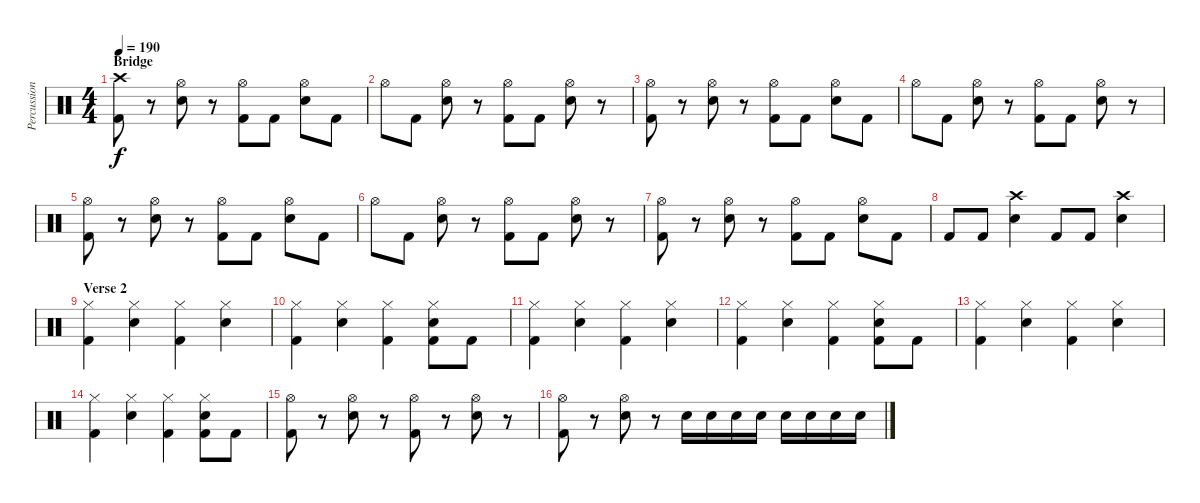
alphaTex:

\track ("Percussion" "Percussion") {instrument percussion}
\staff {score}
\articulation defaults
\ts (4 4)
\section ("" "Bridge")
\tempo 190
\clef neutral
\ks c
("Crash high (hit)" "Kick (hit) 2").8{dy f} r.8 ("Hi-Hat (open)" "Electric Snare (hit)").8 r.8 ("Hi-Hat (open)" "Kick (hit) 2").8 "Kick (hit) 2".8 ("Hi-Hat (open)" "Electric Snare (hit)").8 "Kick (hit) 2".8 |
"Hi-Hat (open)".8 "Kick (hit) 2".8 ("Hi-Hat (open)" "Electric Snare (hit)").8 r.8 ("Hi-Hat (open)" "Kick (hit) 2").8 "Kick (hit) 2".8 ("Hi-Hat (open)" "Electric Snare (hit)").8 r.8 |
("Hi-Hat (open)" "Kick (hit) 2").8 r.8 ("Hi-Hat (open)" "Electric Snare (hit)").8 r.8 ("Hi-Hat (open)" "Kick (hit) 2").8 "Kick (hit) 2".8 ("Hi-Hat (open)" "Electric Snare (hit)").8 "Kick (hit) 2".8 |
"Hi-Hat (open)".8 "Kick (hit) 2".8 ("Hi-Hat (open)" "Electric Snare (hit)").8 r.8 ("Hi-Hat (open)" "Kick (hit) 2").8 "Kick (hit) 2".8 ("Hi-Hat (open)" "Electric Snare (hit)").8 r.8 |
("Hi-Hat (open)" "Kick (hit) 2").8 r.8 ("Hi-Hat (open)" "Electric Snare (hit)").8 r.8 ("Hi-Hat (open)" "Kick (hit) 2").8 "Kick (hit) 2".8 ("Hi-Hat (open)" "Electric Snare (hit)").8 "Kick (hit) 2".8 |
"Hi-Hat (open)".8 "Kick (hit) 2".8 ("Hi-Hat (open)" "Electric Snare (hit)").8 r.8 ("Hi-Hat (open)" "Kick (hit) 2").8 "Kick (hit) 2".8 ("Hi-Hat (open)" "Electric Snare (hit)").8 r.8 |
("Hi-Hat (open)" "Kick (hit) 2").8 r.8 ("Hi-Hat (open)" "Electric Snare (hit)").8 r.8 ("Hi-Hat (open)" "Kick (hit) 2").8 "Kick (hit) 2".8 ("Hi-Hat (open)" "Electric Snare (hit)").8 "Kick (hit) 2".8 |
"Kick (hit) 2".8 "Kick (hit) 2".8 ("Crash high (hit)" "Electric Snare (hit)").4 "Kick (hit) 2".8 "Kick (hit) 2".8 ("Crash high (hit)" "Electric Snare (hit)").4 |
\section ("" "Verse 2")
("Hi-Hat (closed)" "Kick (hit) 2").4 ("Hi-Hat (closed)" "Electric Snare (hit)").4 ("Hi-Hat (closed)" "Kick (hit) 2").4 ("Hi-Hat (closed)" "Electric Snare (hit)").4 |
("Hi-Hat (closed)" "Kick (hit) 2").4 ("Hi-Hat (closed)" "Electric Snare (hit)").4 ("Hi-Hat (closed)" "Kick (hit) 2").4 ("Hi-Hat (closed)" "Electric Snare (hit)" "Kick (hit) 2").8 "Kick (hit) 2".8 |
("Hi-Hat (closed)" "Kick (hit) 2").4 ("Hi-Hat (closed)" "Electric Snare (hit)").4 ("Hi-Hat (closed)" "Kick (hit) 2").4 ("Hi-Hat (closed)" "Electric Snare (hit)").4 |
("Hi-Hat (closed)" "Kick (hit) 2").4 ("Hi-Hat (closed)" "Electric Snare (hit)").4 ("Hi-Hat (closed)" "Kick (hit) 2").4 ("Hi-Hat (closed)" "Electric Snare (hit)" "Kick (hit) 2").8 "Kick (hit) 2".8 |
("Hi-Hat (closed)" "Kick (hit) 2").4 ("Hi-Hat (closed)" "Electric Snare (hit)").4 ("Hi-Hat (closed)" "Kick (hit) 2").4 ("Hi-Hat (closed)" "Electric Snare (hit)").4 |
("Hi-Hat (closed)" "Kick (hit) 2").4 ("Hi-Hat (closed)" "Electric Snare (hit)").4 ("Hi-Hat (closed)" "Kick (hit) 2").4 ("Hi-Hat (closed)" "Electric Snare (hit)" "Kick (hit) 2").8 "Kick (hit) 2".8 |
("Hi-Hat (open)" "Kick (hit) 2").8 r.8 ("Hi-Hat (open)" "Electric Snare (hit)").8 r.8 ("Hi-Hat (open)" "Kick (hit) 2").8 r.8 ("Hi-Hat (open)" "Electric Snare (hit)").8 r.8 |
("Hi-Hat (open)" "Kick (hit) 2").8 r.8 ("Hi-Hat (open)" "Electric Snare (hit)").8 r.8 "Electric Snare (hit)".16 "Electric Snare (hit)".16 "Electric Snare (hit)".16 "Electric Snare (hit)".16 "Electric Snare (hit)".16 "Electric Snare (hit)".16 "Electric Snare (hit)".16 "Electric Snare (hit)".16
